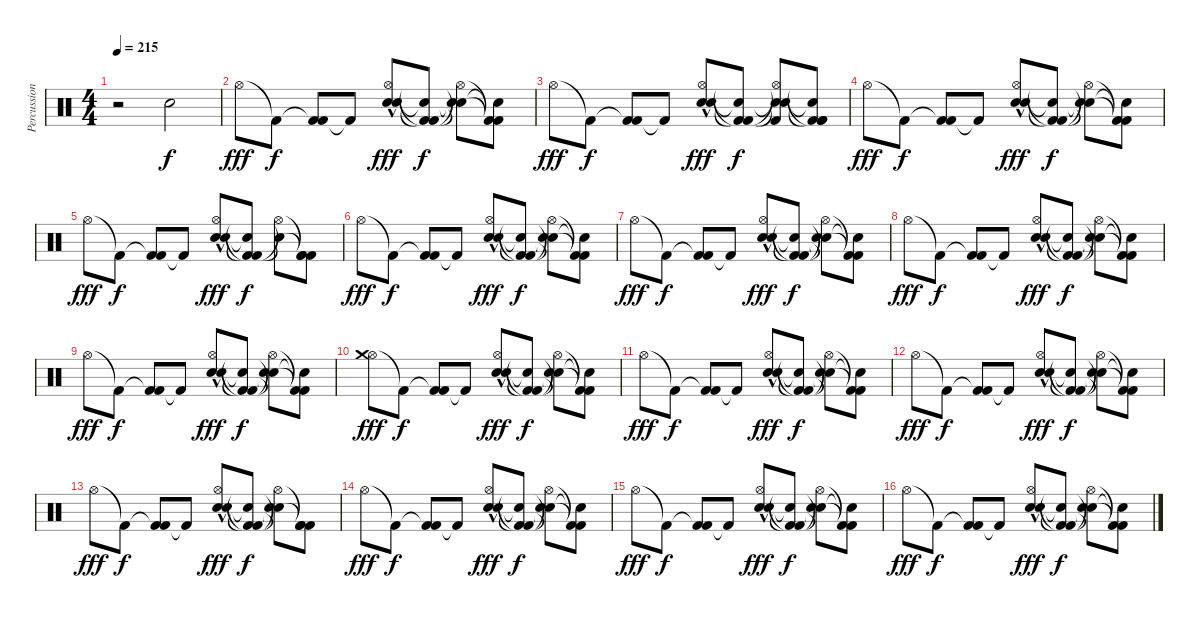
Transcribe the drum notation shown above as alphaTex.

\track ("Percussion" "Percussion") {instrument percussion}
\staff {score}
\articulation defaults
\ts (4 4)
\tempo 215
\clef neutral
\ks c
r.2{dy f} "Snare (hit) 2".2 |
"Hi-Hat (open)".8{dy fff} "Kick (hit) 2"{t}.8{dy f} ("Kick (hit) 2"{t} "Kick (hit) 2").8 "Kick (hit) 2"{t}.8 ("Snare (hit) 2"{hac} "Hi-Hat (open)"{hac} "Electric Snare (hit)").8{dy fff} ("Kick (hit) 2"{t} "Kick (hit) 2"{t} "Snare (hit)"{t}).8{dy f} ("Snare (hit)"{t} "Hi-Hat (open)"{t} "Snare (hit)"{t}).8 ("Kick (hit) 2"{t} "Kick (hit) 2"{t} "Snare (hit)"{t}).8 |
"Hi-Hat (open)".8{dy fff} "Kick (hit) 2"{t}.8{dy f} ("Kick (hit) 2"{t} "Kick (hit) 2").8 "Kick (hit) 2"{t}.8 ("Snare (hit) 2"{hac} "Hi-Hat (open)"{hac} "Electric Snare (hit)").8{dy fff} ("Kick (hit) 2"{t} "Kick (hit) 2"{t} "Snare (hit)"{t}).8{dy f} ("Snare (hit)"{t} "Hi-Hat (open)"{t} "Snare (hit)"{t} "Kick (hit) 2").8 ("Kick (hit) 2"{t} "Kick (hit) 2"{t} "Snare (hit)"{t} "Kick (hit) 2").8 |
"Hi-Hat (open)".8{dy fff} "Kick (hit) 2"{t}.8{dy f} ("Kick (hit) 2"{t} "Kick (hit) 2").8 "Kick (hit) 2"{t}.8 ("Snare (hit) 2"{hac} "Hi-Hat (open)"{hac} "Electric Snare (hit)").8{dy fff} ("Kick (hit) 2"{t} "Kick (hit) 2"{t} "Snare (hit)"{t}).8{dy f} ("Snare (hit)"{t} "Hi-Hat (open)"{t} "Snare (hit)"{t}).8 ("Kick (hit) 2"{t} "Kick (hit) 2"{t} "Snare (hit)"{t}).8 |
"Hi-Hat (open)".8{dy fff} "Kick (hit) 2"{t}.8{dy f} ("Kick (hit) 2"{t} "Kick (hit) 2").8 "Kick (hit) 2"{t}.8 ("Snare (hit) 2"{hac} "Hi-Hat (open)"{hac} "Electric Snare (hit)").8{dy fff} ("Kick (hit) 2"{t} "Kick (hit) 2"{t} "Snare (hit)"{t}).8{dy f} ("Snare (hit)"{t} "Hi-Hat (open)"{t}).8 ("Kick (hit) 2"{t} "Kick (hit) 2"{t} "Kick (hit) 2").8 |
"Hi-Hat (open)".8{dy fff} "Kick (hit) 2"{t}.8{dy f} ("Kick (hit) 2"{t} "Kick (hit) 2").8 "Kick (hit) 2"{t}.8 ("Snare (hit) 2"{hac} "Hi-Hat (open)"{hac} "Electric Snare (hit)").8{dy fff} ("Kick (hit) 2"{t} "Kick (hit) 2"{t} "Snare (hit)"{t}).8{dy f} ("Snare (hit)"{t} "Hi-Hat (open)"{t} "Snare (hit)"{t}).8 ("Kick (hit) 2"{t} "Kick (hit) 2"{t} "Snare (hit)"{t}).8 |
"Hi-Hat (open)".8{dy fff} "Kick (hit) 2"{t}.8{dy f} ("Kick (hit) 2"{t} "Kick (hit) 2").8 "Kick (hit) 2"{t}.8 ("Snare (hit) 2"{hac} "Hi-Hat (open)"{hac} "Electric Snare (hit)").8{dy fff} ("Kick (hit) 2"{t} "Kick (hit) 2"{t} "Snare (hit)"{t}).8{dy f} ("Snare (hit)"{t} "Hi-Hat (open)"{t} "Snare (hit)"{t}).8 ("Kick (hit) 2"{t} "Kick (hit) 2"{t} "Snare (hit)"{t}).8 |
"Hi-Hat (open)".8{dy fff} "Kick (hit) 2"{t}.8{dy f} ("Kick (hit) 2"{t} "Kick (hit) 2").8 "Kick (hit) 2"{t}.8 ("Snare (hit) 2"{hac} "Hi-Hat (open)"{hac} "Electric Snare (hit)").8{dy fff} ("Kick (hit) 2"{t} "Kick (hit) 2"{t} "Snare (hit)"{t}).8{dy f} ("Snare (hit)"{t} "Hi-Hat (open)"{t} "Snare (hit)"{t}).8 ("Kick (hit) 2"{t} "Kick (hit) 2"{t} "Snare (hit)"{t}).8 |
"Hi-Hat (open)".8{dy fff} "Kick (hit) 2"{t}.8{dy f} ("Kick (hit) 2"{t} "Kick (hit) 2").8 "Kick (hit) 2"{t}.8 ("Snare (hit) 2"{hac} "Hi-Hat (open)"{hac} "Electric Snare (hit)").8{dy fff} ("Kick (hit) 2"{t} "Kick (hit) 2"{t} "Snare (hit)"{t}).8{dy f} ("Snare (hit)"{t} "Hi-Hat (open)"{t} "Snare (hit)"{t}).8 ("Kick (hit) 2"{t} "Kick (hit) 2"{t} "Snare (hit)"{t}).8 |
("Hi-Hat (open)" "Crash medium (hit)").8{dy fff} "Kick (hit) 2"{t}.8{dy f} ("Kick (hit) 2"{t} "Kick (hit) 2").8 "Kick (hit) 2"{t}.8 ("Snare (hit) 2"{hac} "Hi-Hat (open)"{hac} "Electric Snare (hit)").8{dy fff} ("Kick (hit) 2"{t} "Kick (hit) 2"{t} "Snare (hit)"{t}).8{dy f} ("Snare (hit)"{t} "Hi-Hat (open)"{t} "Snare (hit)"{t}).8 ("Kick (hit) 2"{t} "Kick (hit) 2"{t} "Snare (hit)"{t}).8 |
"Hi-Hat (open)".8{dy fff} "Kick (hit) 2"{t}.8{dy f} ("Kick (hit) 2"{t} "Kick (hit) 2").8 "Kick (hit) 2"{t}.8 ("Snare (hit) 2"{hac} "Hi-Hat (open)"{hac} "Electric Snare (hit)").8{dy fff} ("Kick (hit) 2"{t} "Kick (hit) 2"{t} "Snare (hit)"{t}).8{dy f} ("Snare (hit)"{t} "Hi-Hat (open)"{t} "Snare (hit)"{t}).8 ("Kick (hit) 2"{t} "Kick (hit) 2"{t} "Snare (hit)"{t}).8 |
"Hi-Hat (open)".8{dy fff} "Kick (hit) 2"{t}.8{dy f} ("Kick (hit) 2"{t} "Kick (hit) 2").8 "Kick (hit) 2"{t}.8 ("Snare (hit) 2"{hac} "Hi-Hat (open)"{hac} "Electric Snare (hit)").8{dy fff} ("Kick (hit) 2"{t} "Kick (hit) 2"{t} "Snare (hit)"{t}).8{dy f} ("Snare (hit)"{t} "Hi-Hat (open)"{t} "Snare (hit)"{t}).8 ("Kick (hit) 2"{t} "Kick (hit) 2"{t} "Snare (hit)"{t}).8 |
"Hi-Hat (open)".8{dy fff} "Kick (hit) 2"{t}.8{dy f} ("Kick (hit) 2"{t} "Kick (hit) 2").8 "Kick (hit) 2"{t}.8 ("Snare (hit) 2"{hac} "Hi-Hat (open)"{hac} "Electric Snare (hit)").8{dy fff} ("Kick (hit) 2"{t} "Kick (hit) 2"{t} "Snare (hit)"{t}).8{dy f} ("Snare (hit)"{t} "Hi-Hat (open)"{t} "Snare (hit)"{t}).8 ("Kick (hit) 2"{t} "Kick (hit) 2"{t} "Kick (hit) 2").8 |
"Hi-Hat (open)".8{dy fff} "Kick (hit) 2"{t}.8{dy f} ("Kick (hit) 2"{t} "Kick (hit) 2").8 "Kick (hit) 2"{t}.8 ("Snare (hit) 2"{hac} "Hi-Hat (open)"{hac} "Electric Snare (hit)").8{dy fff} ("Kick (hit) 2"{t} "Kick (hit) 2"{t} "Snare (hit)"{t}).8{dy f} ("Snare (hit)"{t} "Hi-Hat (open)"{t} "Snare (hit)"{t}).8 ("Kick (hit) 2"{t} "Kick (hit) 2"{t} "Snare (hit)"{t}).8 |
"Hi-Hat (open)".8{dy fff} "Kick (hit) 2"{t}.8{dy f} ("Kick (hit) 2"{t} "Kick (hit) 2").8 "Kick (hit) 2"{t}.8 ("Snare (hit) 2"{hac} "Hi-Hat (open)"{hac} "Electric Snare (hit)").8{dy fff} ("Kick (hit) 2"{t} "Kick (hit) 2"{t} "Snare (hit)"{t}).8{dy f} ("Snare (hit)"{t} "Hi-Hat (open)"{t} "Snare (hit)"{t}).8 ("Kick (hit) 2"{t} "Kick (hit) 2"{t} "Snare (hit)"{t}).8 |
"Hi-Hat (open)".8{dy fff} "Kick (hit) 2"{t}.8{dy f} ("Kick (hit) 2"{t} "Kick (hit) 2").8 "Kick (hit) 2"{t}.8 ("Snare (hit) 2"{hac} "Hi-Hat (open)"{hac} "Electric Snare (hit)").8{dy fff} ("Kick (hit) 2"{t} "Kick (hit) 2"{t} "Snare (hit)"{t}).8{dy f} ("Snare (hit)"{t} "Hi-Hat (open)"{t} "Snare (hit)"{t}).8 ("Kick (hit) 2"{t} "Kick (hit) 2"{t} "Snare (hit)"{t}).8
